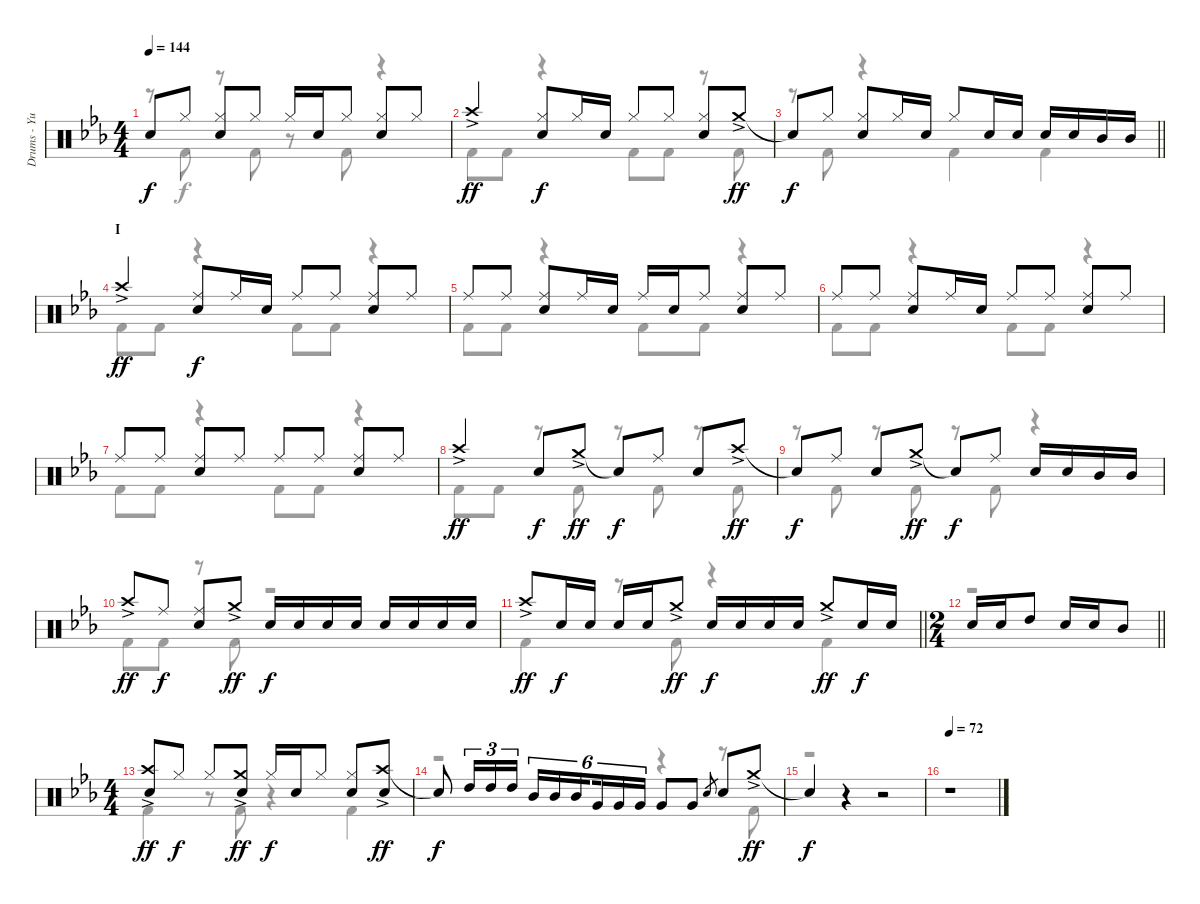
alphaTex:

\track ("Drums - Yuuya" "Drums - Yu") {instrument percussion}
\staff {score}
\articulation defaults
\voice
\ts (4 4)
\tempo 144
\clef neutral
\ks eb "Snare (hit)"{t}.8{dy f} "Hi-Hat (closed)".8
("Hi-Hat (closed)" "Snare (hit) 2").8 "Hi-Hat (closed)".8 "Hi-Hat (closed)".16 "Snare (hit) 2".16 "Hi-Hat (closed)".8 ("Hi-Hat (closed)" "Snare (hit) 2").8 "Hi-Hat (closed)".8 |
"Crash high (hit)"{ac}.4{dy ff} ("Hi-Hat (closed)" "Snare (hit) 2").8{dy f} "Hi-Hat (closed)".16 "Snare (hit) 2".16 "Hi-Hat (closed)".8 "Hi-Hat (closed)".8 ("Hi-Hat (closed)" "Snare (hit) 2").8 "Crash medium (hit)"{ac}.8{dy ff} |
\barLineRight lightlight "Snare (hit)"{t}.8{dy f} "Hi-Hat (closed)".8
("Hi-Hat (closed)" "Snare (hit) 2").8 "Hi-Hat (closed)".16 "Snare (hit) 2".16 "Hi-Hat (closed)".8 "Snare (hit) 2".16 "Snare (hit) 2".16 "Snare (hit) 2".16 "Snare (hit) 2".16 "Mid Tom (hit)".16 "Mid Tom (hit)".16 |
\section ("" "I")
"Crash high (hit)"{ac}.4{dy ff} ("Ride (middle)" "Snare (hit) 2").8{dy f} "Ride (middle)".16 "Snare (hit) 2".16 "Ride (middle)".8 "Ride (middle)".8 ("Ride (middle)" "Snare (hit) 2").8 "Ride (middle)".8 |
"Ride (middle)".8 "Ride (middle)".8 ("Ride (middle)" "Snare (hit) 2").8 "Ride (middle)".16 "Snare (hit) 2".16 "Ride (middle)".16 "Snare (hit) 2".16 "Ride (middle)".8 ("Ride (middle)" "Snare (hit) 2").8 "Ride (middle)".8 |
"Ride (middle)".8 "Ride (middle)".8 ("Ride (middle)" "Snare (hit) 2").8 "Ride (middle)".16 "Snare (hit) 2".16 "Ride (middle)".8 "Ride (middle)".8 ("Ride (middle)" "Snare (hit) 2").8 "Ride (middle)".8 |
"Ride (middle)".8 "Ride (middle)".8 ("Ride (middle)" "Snare (hit) 2").8 "Ride (middle)".8 "Ride (middle)".8 "Ride (middle)".8 ("Ride (middle)" "Snare (hit) 2").8 "Ride (middle)".8 |
"Crash high (hit)"{ac}.4{dy ff} "Snare (hit) 2".8{dy f} "Crash medium (hit)"{ac}.8{dy ff} "Snare (hit)"{t}.8{dy f} "Ride (middle)".8 "Snare (hit) 2".8 "Crash high (hit)"{ac}.8{dy ff} |
"Snare (hit)"{t}.8{dy f} "Ride (middle)".8 "Snare (hit) 2".8 "Crash medium (hit)"{ac}.8{dy ff} "Snare (hit)"{t}.8{dy f} "Ride (middle)".8 "Snare (hit) 2".16 "Snare (hit) 2".16 "Mid Tom (hit)".16 "Mid Tom (hit)".16 |
"Crash high (hit)"{ac}.8{dy ff} "Ride (middle)".8{dy f} ("Ride (middle)" "Snare (hit) 2").8 "Crash medium (hit)"{ac}.8{dy ff} "Snare (hit) 2".16{dy f} "Snare (hit) 2".16 "Snare (hit) 2".16 "Snare (hit) 2".16 "Snare (hit) 2".16 "Snare (hit) 2".16 "Snare (hit) 2".16 "Snare (hit) 2".16 |
\barLineRight lightlight "Crash high (hit)"{ac}.8{dy ff} "Snare (hit) 2".16{dy f} "Snare (hit) 2".16 "Snare (hit) 2".16 "Snare (hit) 2".16 "Crash medium (hit)"{ac}.8{dy ff} "Snare (hit) 2".16{dy f} "Snare (hit) 2".16 "Snare (hit) 2".16 "Snare (hit) 2".16 "Crash medium (hit)"{ac}.8{dy ff} "Snare (hit) 2".16{dy f} "Snare (hit) 2".16
|
\ts (2 4)
\barLineRight lightlight "Snare (hit) 2".16 "Snare (hit) 2".16 "High Tom (hit)".8 "Snare (hit) 2".16 "Snare (hit) 2".16 "Mid Tom (hit)".8
|
\ts (4 4)
("Crash high (hit)"{ac} "Snare (hit) 2").8{dy ff} "Hi-Hat (closed)".8{dy f} "Hi-Hat (closed)".8 ("Crash medium (hit)"{ac} "Snare (hit) 2").8{dy ff} "Hi-Hat (closed)".16{dy f} "Snare (hit) 2".16 "Hi-Hat (closed)".8 ("Hi-Hat (closed)" "Snare (hit) 2").8 ("Crash high (hit)"{ac} "Snare (hit) 2").8{dy ff} |
"Snare (hit)"{t}.8{dy f} "High Tom (hit)".16{tu (3 2)} "High Tom (hit)".16{tu (3 2)} "High Tom (hit)".16{tu (3 2)} "Mid Tom (hit)".16{tu (6 4)} "Mid Tom (hit)".16{tu (6 4)} "Mid Tom (hit)".16{tu (6 4) beam splitsecondary} "Very Low Tom (hit)".16{tu (6 4)} "Very Low Tom (hit)".16{tu (6 4)} "Very Low Tom (hit)".16{tu (6 4)} "Very Low Tom (hit)".8 "Very Low Tom (hit)".8 "Snare (hit) 2".8{gr} "Snare (hit) 2".8 "Crash medium (hit)"{ac}.8{dy ff} |
"Snare (hit)"{t}.4{dy f} r.4 r.2 |
\tempo 72
r.1
\voice
\clef neutral
\ottava regular
\simile none
\ks eb
r.8{dy f} "Kick (hit) 2".8 r.8 "Kick (hit) 2".8 r.8 "Kick (hit) 2".8 r.4 |
"Kick (hit) 2".8 "Kick (hit) 2".8 r.4 "Kick (hit) 2".8 "Kick (hit) 2".8 r.8 "Kick (hit) 2".8 |
\barLineRight lightlight
r.8 "Kick (hit) 2".8 r.4 "Kick (hit) 2".4 "Kick (hit) 2".4 |
"Kick (hit) 2".8 "Kick (hit) 2".8 r.4 "Kick (hit) 2".8 "Kick (hit) 2".8 r.4 |
"Kick (hit) 2".8 "Kick (hit) 2".8 r.4 "Kick (hit) 2".8 "Kick (hit) 2".8 r.4 |
"Kick (hit) 2".8 "Kick (hit) 2".8 r.4 "Kick (hit) 2".8 "Kick (hit) 2".8 r.4 |
"Kick (hit) 2".8 "Kick (hit) 2".8 r.4 "Kick (hit) 2".8 "Kick (hit) 2".8 r.4 |
"Kick (hit) 2".8 "Kick (hit) 2".8 r.8 "Kick (hit) 2".8 r.8 "Kick (hit) 2".8 r.8 "Kick (hit) 2".8 |
r.8 "Kick (hit) 2".8 r.8 "Kick (hit) 2".8 r.8 "Kick (hit) 2".8 r.4 |
"Kick (hit) 2".8 "Kick (hit) 2".8 r.8 "Kick (hit) 2".8 r.2 |
\barLineRight lightlight "Kick (hit) 2".4
r.8 "Kick (hit) 2".8 r.4 "Kick (hit) 2".4 |
\barLineRight lightlight
r.2 |
"Kick (hit) 2".4 r.8 "Kick (hit) 2".8 r.4 "Kick (hit) 2".4 |
r.2 r.4 r.8 "Kick (hit) 2".8 |
r.1 |
